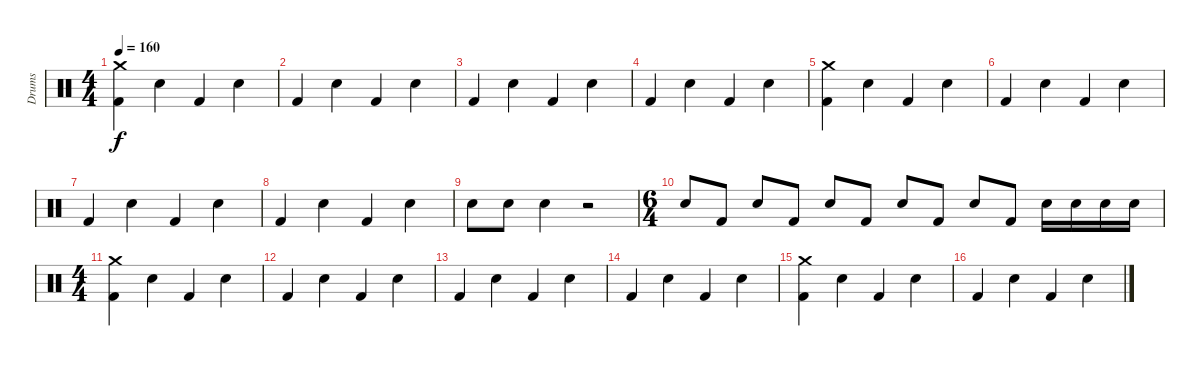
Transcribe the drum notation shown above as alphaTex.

\track ("Drums" "Drums") {instrument percussion}
\staff {score}
\articulation defaults
\ts (4 4)
\tempo 160
\clef neutral
\ks c
("Kick (hit) 2" "Crash medium (hit)").4{dy f} "Snare (hit) 2".4 "Kick (hit) 2".4 "Snare (hit) 2".4 |
"Kick (hit) 2".4 "Snare (hit) 2".4 "Kick (hit) 2".4 "Snare (hit) 2".4 |
"Kick (hit) 2".4 "Snare (hit) 2".4 "Kick (hit) 2".4 "Snare (hit) 2".4 |
"Kick (hit) 2".4 "Snare (hit) 2".4 "Kick (hit) 2".4 "Snare (hit) 2".4 |
("Kick (hit) 2" "Crash medium (hit)").4 "Snare (hit) 2".4 "Kick (hit) 2".4 "Snare (hit) 2".4 |
"Kick (hit) 2".4 "Snare (hit) 2".4 "Kick (hit) 2".4 "Snare (hit) 2".4 |
"Kick (hit) 2".4 "Snare (hit) 2".4 "Kick (hit) 2".4 "Snare (hit) 2".4 |
"Kick (hit) 2".4 "Snare (hit) 2".4 "Kick (hit) 2".4 "Snare (hit) 2".4 |
"Snare (hit) 2".8 "Snare (hit) 2".8 "Snare (hit) 2".4 r.2 |
\ts (6 4)
"Snare (hit) 2".8 "Kick (hit) 2".8 "Snare (hit) 2".8 "Kick (hit) 2".8 "Snare (hit) 2".8 "Kick (hit) 2".8 "Snare (hit) 2".8 "Kick (hit) 2".8 "Snare (hit) 2".8 "Kick (hit) 2".8 "Snare (hit) 2".16 "Snare (hit) 2".16 "Snare (hit) 2".16 "Snare (hit) 2".16 |
\ts (4 4)
("Kick (hit) 2" "Crash medium (hit)").4 "Snare (hit) 2".4 "Kick (hit) 2".4 "Snare (hit) 2".4 |
"Kick (hit) 2".4 "Snare (hit) 2".4 "Kick (hit) 2".4 "Snare (hit) 2".4 |
"Kick (hit) 2".4 "Snare (hit) 2".4 "Kick (hit) 2".4 "Snare (hit) 2".4 |
"Kick (hit) 2".4 "Snare (hit) 2".4 "Kick (hit) 2".4 "Snare (hit) 2".4 |
("Kick (hit) 2" "Crash medium (hit)").4 "Snare (hit) 2".4 "Kick (hit) 2".4 "Snare (hit) 2".4 |
"Kick (hit) 2".4 "Snare (hit) 2".4 "Kick (hit) 2".4 "Snare (hit) 2".4
